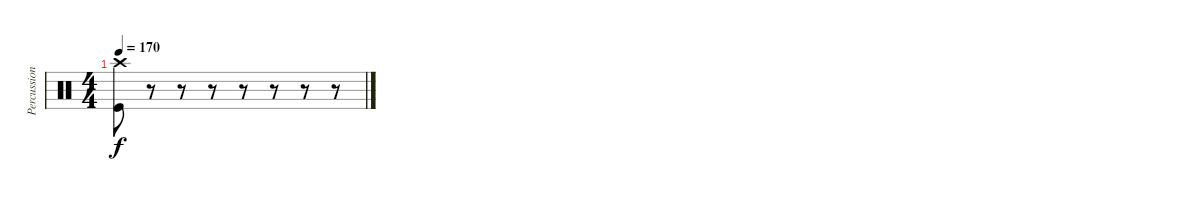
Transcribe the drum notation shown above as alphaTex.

\track ("Percussion" "Percussion") {instrument percussion}
\staff {score}
\articulation defaults
\ts (4 4)
\tempo 170
\clef neutral
\ks c
("Crash high (hit)" "Kick (hit)").8{dy f} r.8 r.8 r.8 r.8 r.8 r.8 r.8
